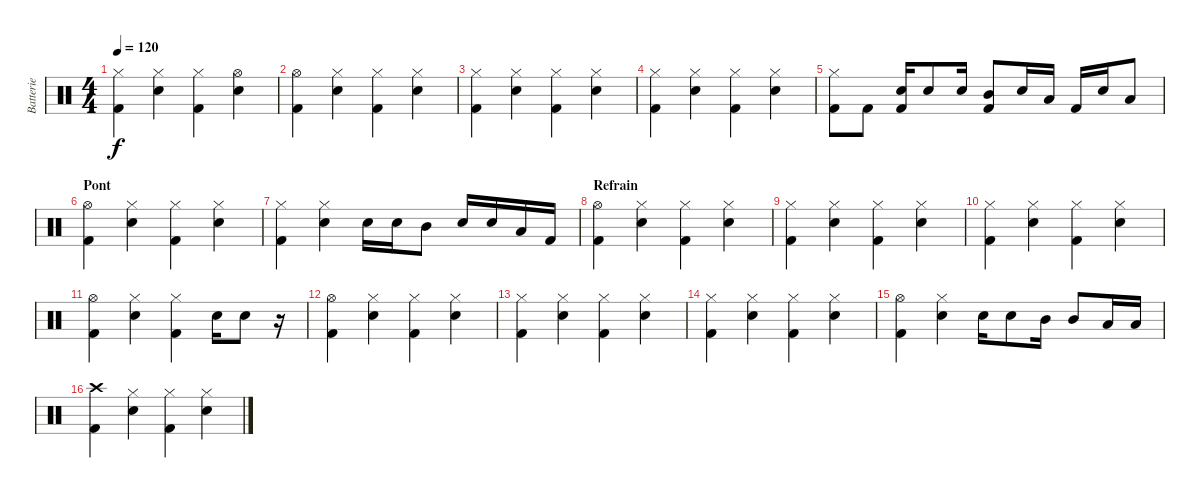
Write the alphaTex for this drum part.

\track ("Batterie" "Batterie") {instrument percussion}
\staff {score}
\articulation defaults
\ts (4 4)
\tempo 120
\clef neutral
\ks c
("Hi-Hat (closed)" "Kick (hit) 2").4{dy f} ("Hi-Hat (closed)" "Snare (hit) 2").4 ("Hi-Hat (closed)" "Kick (hit) 2").4 ("Hi-Hat (open)" "Snare (hit) 2").4 |
("Hi-Hat (open)" "Kick (hit) 2").4 ("Hi-Hat (closed)" "Snare (hit) 2").4 ("Hi-Hat (closed)" "Kick (hit) 2").4 ("Hi-Hat (closed)" "Snare (hit) 2").4 |
("Hi-Hat (closed)" "Kick (hit) 2").4 ("Hi-Hat (closed)" "Snare (hit) 2").4 ("Hi-Hat (closed)" "Kick (hit) 2").4 ("Hi-Hat (closed)" "Snare (hit) 2").4 |
("Hi-Hat (closed)" "Kick (hit) 2").4 ("Hi-Hat (closed)" "Snare (hit) 2").4 ("Hi-Hat (closed)" "Kick (hit) 2").4 ("Hi-Hat (closed)" "Snare (hit) 2").4 |
("Hi-Hat (closed)" "Kick (hit) 2").8 "Kick (hit) 2".8 ("Snare (hit) 2" "Kick (hit) 2").16 "Snare (hit) 2".8 "Snare (hit) 2".16 ("Mid Tom (hit)" "Kick (hit) 2").8 "Snare (hit) 2".16 "Low Tom (hit)".16 "Kick (hit) 2".16 "Snare (hit) 2".16 "Low Floor Tom (hit)".8 |
\section ("" "Pont")
("Hi-Hat (open)" "Kick (hit) 2").4 ("Hi-Hat (closed)" "Snare (hit) 2").4 ("Hi-Hat (closed)" "Kick (hit) 2").4 ("Hi-Hat (closed)" "Snare (hit) 2").4 |
("Hi-Hat (closed)" "Kick (hit) 2").4 ("Hi-Hat (closed)" "Snare (hit) 2").4 "Snare (hit) 2".16 "Snare (hit) 2".16 "Mid Tom (hit)".8 "Snare (hit) 2".16 "Snare (hit) 2".16 "Low Tom (hit)".16 "Kick (hit) 2".16 |
\section ("" "Refrain")
("Hi-Hat (open)" "Kick (hit) 2").4 ("Hi-Hat (closed)" "Snare (hit) 2").4 ("Hi-Hat (closed)" "Kick (hit) 2").4 ("Hi-Hat (closed)" "Snare (hit) 2").4 |
("Hi-Hat (closed)" "Kick (hit) 2").4 ("Hi-Hat (closed)" "Snare (hit) 2").4 ("Hi-Hat (closed)" "Kick (hit) 2").4 ("Hi-Hat (closed)" "Snare (hit) 2").4 |
("Hi-Hat (closed)" "Kick (hit) 2").4 ("Hi-Hat (closed)" "Snare (hit) 2").4 ("Hi-Hat (closed)" "Kick (hit) 2").4 ("Hi-Hat (closed)" "Snare (hit) 2").4 |
("Hi-Hat (open)" "Kick (hit) 2").4 ("Hi-Hat (closed)" "Snare (hit) 2").4 ("Hi-Hat (closed)" "Kick (hit) 2").4 "Snare (hit) 2".16 "Snare (hit) 2".8 r.16 |
("Hi-Hat (open)" "Kick (hit) 2").4 ("Hi-Hat (closed)" "Snare (hit) 2").4 ("Hi-Hat (closed)" "Kick (hit) 2").4 ("Hi-Hat (closed)" "Snare (hit) 2").4 |
("Hi-Hat (closed)" "Kick (hit) 2").4 ("Hi-Hat (closed)" "Snare (hit) 2").4 ("Hi-Hat (closed)" "Kick (hit) 2").4 ("Hi-Hat (closed)" "Snare (hit) 2").4 |
("Hi-Hat (closed)" "Kick (hit) 2").4 ("Hi-Hat (closed)" "Snare (hit) 2").4 ("Hi-Hat (closed)" "Kick (hit) 2").4 ("Hi-Hat (closed)" "Snare (hit) 2").4 |
("Hi-Hat (open)" "Kick (hit) 2").4 ("Hi-Hat (closed)" "Snare (hit) 2").4 "Snare (hit) 2".16 "Snare (hit) 2".8 "Mid Tom (hit)".16 "Mid Tom (hit)".8 "Low Tom (hit)".16 "Low Tom (hit)".16 |
("Crash high (hit)" "Kick (hit) 2").4 ("Hi-Hat (closed)" "Snare (hit) 2").4 ("Hi-Hat (closed)" "Kick (hit) 2").4 ("Hi-Hat (closed)" "Snare (hit) 2").4
